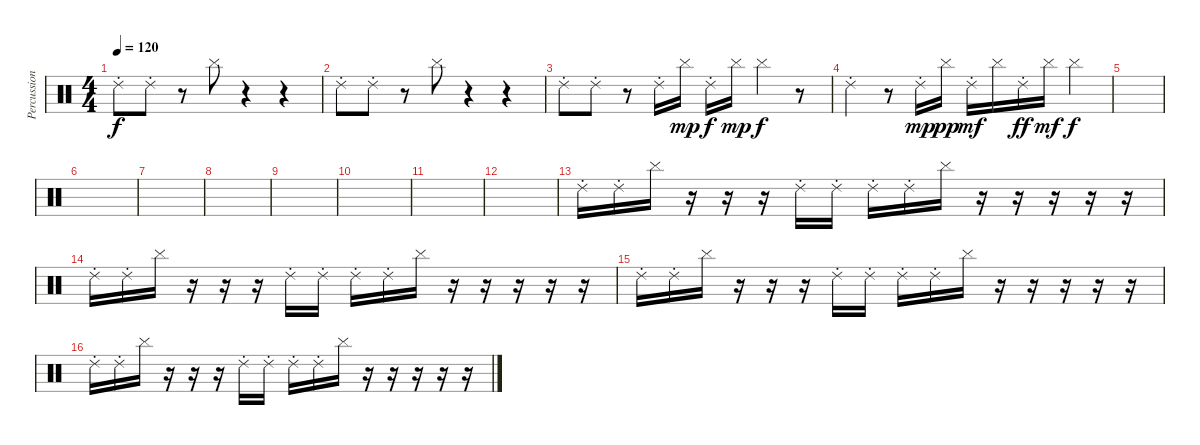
\track ("Percussions" "Percussion") {instrument percussion}
\staff {score}
\articulation defaults
\ts (4 4)
\tempo 120
\clef neutral
\ks c "Ride (choke) 2".8{dy f} "Ride (choke) 2".8
r.8 "Cymbal (hit)".8 r.4 r.4 |
"Ride (choke) 2".8 "Ride (choke) 2".8 r.8 "Cymbal (hit)".8 r.4 r.4 |
"Ride (choke) 2".8 "Ride (choke) 2".8 r.8 "Ride (choke) 2".16 "Cymbal (hit)".16{dy mp} "Ride (choke) 2".16{dy f} "Cymbal (hit)".16{dy mp} "Cymbal (hit)".4{dy f} r.8 |
"Ride (choke) 2".4 r.8 "Ride (choke) 2".16{dy mp} "Cymbal (hit)".16{dy pp} "Ride (choke) 2".16{dy mf} "Cymbal (hit)".16 "Ride (choke) 2".16{dy ff} "Cymbal (hit)".16{dy mf} "Cymbal (hit)".4{dy f} |
|
|
|
|
|
|
|
|
"Ride (choke) 2".16{volume 13} "Ride (choke) 2".16 "Cymbal (hit)".16 r.16 r.16 r.16 "Ride (choke) 2".16 "Ride (choke) 2".16 "Ride (choke) 2".16 "Ride (choke) 2".16 "Cymbal (hit)".16 r.16 r.16 r.16 r.16 r.16 |
"Ride (choke) 2".16 "Ride (choke) 2".16 "Cymbal (hit)".16 r.16 r.16 r.16 "Ride (choke) 2".16 "Ride (choke) 2".16 "Ride (choke) 2".16 "Ride (choke) 2".16 "Cymbal (hit)".16 r.16 r.16 r.16 r.16 r.16 |
"Ride (choke) 2".16 "Ride (choke) 2".16 "Cymbal (hit)".16 r.16 r.16 r.16 "Ride (choke) 2".16 "Ride (choke) 2".16 "Ride (choke) 2".16 "Ride (choke) 2".16 "Cymbal (hit)".16 r.16 r.16 r.16 r.16 r.16 |
"Ride (choke) 2".16 "Ride (choke) 2".16 "Cymbal (hit)".16 r.16 r.16 r.16 "Ride (choke) 2".16 "Ride (choke) 2".16 "Ride (choke) 2".16 "Ride (choke) 2".16 "Cymbal (hit)".16 r.16 r.16 r.16 r.16 r.16
